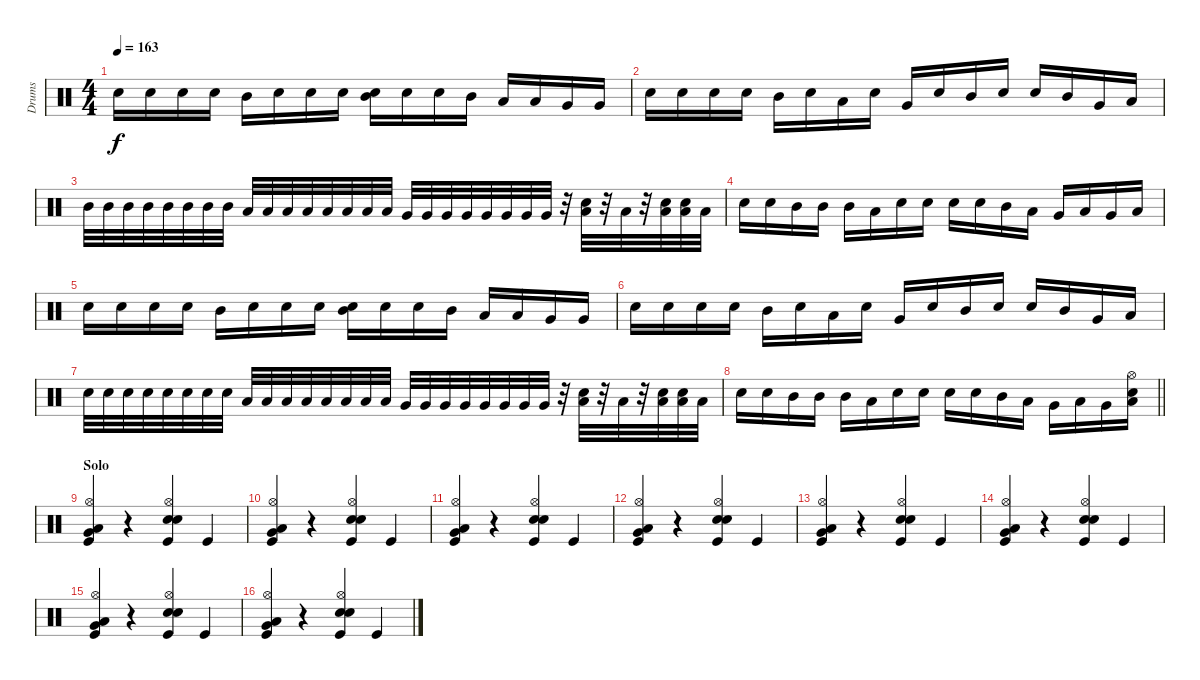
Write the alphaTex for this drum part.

\track ("Drums" "Drums") {instrument percussion}
\staff {score}
\articulation defaults
\ts (4 4)
\tempo 163
\clef neutral
\ks c "Snare (hit) 2".16{dy f} "Snare (hit) 2".16 "Snare (hit) 2".16 "Snare (hit) 2".16 "Mid Tom (hit)".16 "Snare (hit) 2".16 "Snare (hit) 2".16 "Snare (hit) 2".16
("Mid Tom (hit)" "Snare (hit) 2").16 "Snare (hit) 2".16 "Snare (hit) 2".16 "Mid Tom (hit)".16 "Low Tom (hit)".16 "Low Tom (hit)".16 "Very Low Tom (hit)".16 "Very Low Tom (hit)".16 |
"Snare (hit) 2".16 "Snare (hit) 2".16 "Snare (hit) 2".16 "Snare (hit) 2".16 "Mid Tom (hit)".16 "Snare (hit) 2".16 "Low Tom (hit)".16 "Snare (hit) 2".16 "Very Low Tom (hit)".16 "Snare (hit) 2".16 "Mid Tom (hit)".16 "Snare (hit) 2".16 "Snare (hit) 2".16 "Mid Tom (hit)".16 "Very Low Tom (hit)".16 "Low Tom (hit)".16 |
"Mid Tom (hit)".32 "Mid Tom (hit)".32 "Mid Tom (hit)".32 "Mid Tom (hit)".32 "Mid Tom (hit)".32 "Mid Tom (hit)".32 "Mid Tom (hit)".32 "Mid Tom (hit)".32 "Low Tom (hit)".32 "Low Tom (hit)".32 "Low Tom (hit)".32 "Low Tom (hit)".32 "Low Tom (hit)".32 "Low Tom (hit)".32 "Low Tom (hit)".32 "Low Tom (hit)".32 "Very Low Tom (hit)".32 "Very Low Tom (hit)".32 "Very Low Tom (hit)".32 "Very Low Tom (hit)".32 "Very Low Tom (hit)".32 "Very Low Tom (hit)".32 "Very Low Tom (hit)".32 "Very Low Tom (hit)".32 r.32 ("Low Floor Tom (hit)" "Snare (hit) 2").32 r.32 "Low Floor Tom (hit)".32 r.32 ("Low Floor Tom (hit)" "Snare (hit) 2").32 ("Low Floor Tom (hit)" "Snare (hit) 2").32 "Low Floor Tom (hit)".32 |
"Snare (hit) 2".16 "Snare (hit) 2".16 "Mid Tom (hit)".16 "Mid Tom (hit)".16 "Mid Tom (hit)".16 "Low Tom (hit)".16 "Snare (hit) 2".16 "Snare (hit) 2".16 "Snare (hit) 2".16 "Snare (hit) 2".16 "Mid Tom (hit)".16 "Low Tom (hit)".16 "Very Low Tom (hit)".16 "Low Floor Tom (hit)".16 "Very Low Tom (hit)".16 "Low Tom (hit)".16 |
"Snare (hit) 2".16 "Snare (hit) 2".16 "Snare (hit) 2".16 "Snare (hit) 2".16 "Mid Tom (hit)".16 "Snare (hit) 2".16 "Snare (hit) 2".16 "Snare (hit) 2".16 ("Mid Tom (hit)" "Snare (hit) 2").16 "Snare (hit) 2".16 "Snare (hit) 2".16 "Mid Tom (hit)".16 "Low Tom (hit)".16 "Low Tom (hit)".16 "Very Low Tom (hit)".16 "Very Low Tom (hit)".16 |
"Snare (hit) 2".16 "Snare (hit) 2".16 "Snare (hit) 2".16 "Snare (hit) 2".16 "Mid Tom (hit)".16 "Snare (hit) 2".16 "Low Tom (hit)".16 "Snare (hit) 2".16 "Very Low Tom (hit)".16 "Snare (hit) 2".16 "Mid Tom (hit)".16 "Snare (hit) 2".16 "Snare (hit) 2".16 "Mid Tom (hit)".16 "Very Low Tom (hit)".16 "Low Tom (hit)".16 |
"Snare (hit) 2".32 "Snare (hit) 2".32 "Snare (hit) 2".32 "Snare (hit) 2".32 "Snare (hit) 2".32 "Snare (hit) 2".32 "Snare (hit) 2".32 "Snare (hit) 2".32 "Low Tom (hit)".32 "Low Tom (hit)".32 "Low Tom (hit)".32 "Low Tom (hit)".32 "Low Tom (hit)".32 "Low Tom (hit)".32 "Low Tom (hit)".32 "Low Tom (hit)".32 "Very Low Tom (hit)".32 "Very Low Tom (hit)".32 "Very Low Tom (hit)".32 "Very Low Tom (hit)".32 "Very Low Tom (hit)".32 "Very Low Tom (hit)".32 "Very Low Tom (hit)".32 "Very Low Tom (hit)".32 r.32 ("Low Floor Tom (hit)" "Snare (hit) 2").32 r.32 "Low Floor Tom (hit)".32 r.32 ("Low Floor Tom (hit)" "Snare (hit) 2").32 ("Low Floor Tom (hit)" "Snare (hit) 2").32 "Low Floor Tom (hit)".32 |
\barLineRight lightlight "Snare (hit) 2".16 "Snare (hit) 2".16 "Mid Tom (hit)".16 "Mid Tom (hit)".16 "Mid Tom (hit)".16 "Low Tom (hit)".16 "Snare (hit) 2".16 "Snare (hit) 2".16 "Snare (hit) 2".16 "Snare (hit) 2".16 "Mid Tom (hit)".16 "Low Tom (hit)".16 "Very Low Tom (hit)".16 "Low Floor Tom (hit)".16 "Very Low Tom (hit)".16
("Low Tom (hit)" "Snare (hit) 2" "Hi-Hat (open)").16 |
\section ("" "Solo")
("Kick (hit)" "Low Floor Tom (hit)" "Very Low Tom (hit)" "Hi-Hat (open)").4 r.4 ("Kick (hit)" "Snare (hit) 2" "Snare (hit) 2" "Hi-Hat (open)").4 "Kick (hit)".4 |
("Kick (hit)" "Low Floor Tom (hit)" "Very Low Tom (hit)" "Hi-Hat (open)").4 r.4 ("Kick (hit)" "Snare (hit) 2" "Snare (hit) 2" "Hi-Hat (open)").4 "Kick (hit)".4 |
("Kick (hit)" "Low Floor Tom (hit)" "Very Low Tom (hit)" "Hi-Hat (open)").4 r.4 ("Kick (hit)" "Snare (hit) 2" "Snare (hit) 2" "Hi-Hat (open)").4 "Kick (hit)".4 |
("Kick (hit)" "Low Floor Tom (hit)" "Very Low Tom (hit)" "Hi-Hat (open)").4 r.4 ("Kick (hit)" "Snare (hit) 2" "Snare (hit) 2" "Hi-Hat (open)").4 "Kick (hit)".4 |
("Kick (hit)" "Low Floor Tom (hit)" "Very Low Tom (hit)" "Hi-Hat (open)").4 r.4 ("Kick (hit)" "Snare (hit) 2" "Snare (hit) 2" "Hi-Hat (open)").4 "Kick (hit)".4 |
("Kick (hit)" "Low Floor Tom (hit)" "Very Low Tom (hit)" "Hi-Hat (open)").4 r.4 ("Kick (hit)" "Snare (hit) 2" "Snare (hit) 2" "Hi-Hat (open)").4 "Kick (hit)".4 |
("Kick (hit)" "Low Floor Tom (hit)" "Very Low Tom (hit)" "Hi-Hat (open)").4 r.4 ("Kick (hit)" "Snare (hit) 2" "Snare (hit) 2" "Hi-Hat (open)").4 "Kick (hit)".4 |
("Kick (hit)" "Low Floor Tom (hit)" "Very Low Tom (hit)" "Hi-Hat (open)").4 r.4 ("Kick (hit)" "Snare (hit) 2" "Snare (hit) 2" "Hi-Hat (open)").4 "Kick (hit)".4
